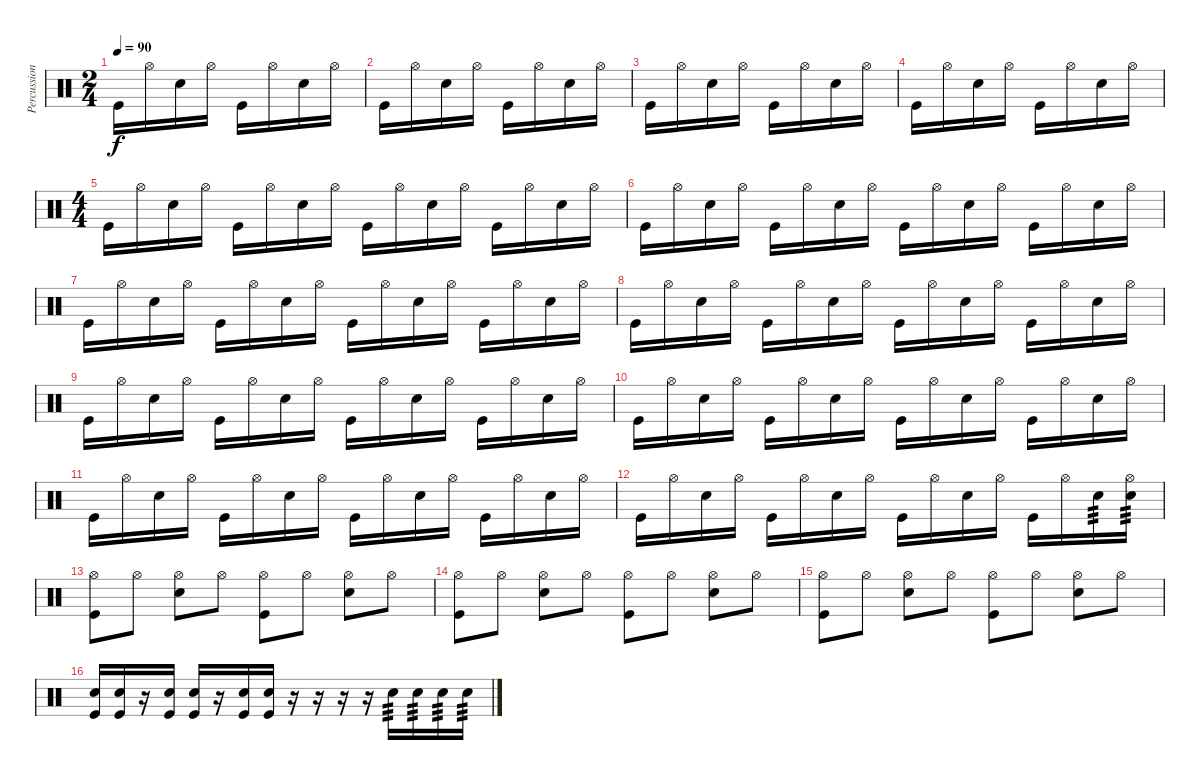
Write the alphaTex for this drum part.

\track ("Percussion" "Percussion") {instrument percussion}
\staff {score}
\articulation defaults
\ts (2 4)
\tempo 90
\clef neutral
\ks c "Kick (hit)".16{dy f} "Hi-Hat (open)".16 "Snare (hit) 2".16 "Hi-Hat (open)".16 "Kick (hit)".16 "Hi-Hat (open)".16 "Snare (hit) 2".16 "Hi-Hat (open)".16
|
"Kick (hit)".16 "Hi-Hat (open)".16 "Snare (hit) 2".16 "Hi-Hat (open)".16 "Kick (hit)".16 "Hi-Hat (open)".16 "Snare (hit) 2".16 "Hi-Hat (open)".16 |
"Kick (hit)".16 "Hi-Hat (open)".16 "Snare (hit) 2".16 "Hi-Hat (open)".16 "Kick (hit)".16 "Hi-Hat (open)".16 "Snare (hit) 2".16 "Hi-Hat (open)".16 |
"Kick (hit)".16 "Hi-Hat (open)".16 "Snare (hit) 2".16 "Hi-Hat (open)".16 "Kick (hit)".16 "Hi-Hat (open)".16 "Snare (hit) 2".16 "Hi-Hat (open)".16 |
\ts (4 4)
"Kick (hit)".16 "Hi-Hat (open)".16 "Snare (hit) 2".16 "Hi-Hat (open)".16 "Kick (hit)".16 "Hi-Hat (open)".16 "Snare (hit) 2".16 "Hi-Hat (open)".16 "Kick (hit)".16 "Hi-Hat (open)".16 "Snare (hit) 2".16 "Hi-Hat (open)".16 "Kick (hit)".16 "Hi-Hat (open)".16 "Snare (hit) 2".16 "Hi-Hat (open)".16 |
"Kick (hit)".16 "Hi-Hat (open)".16 "Snare (hit) 2".16 "Hi-Hat (open)".16 "Kick (hit)".16 "Hi-Hat (open)".16 "Snare (hit) 2".16 "Hi-Hat (open)".16 "Kick (hit)".16 "Hi-Hat (open)".16 "Snare (hit) 2".16 "Hi-Hat (open)".16 "Kick (hit)".16 "Hi-Hat (open)".16 "Snare (hit) 2".16 "Hi-Hat (open)".16 |
"Kick (hit)".16 "Hi-Hat (open)".16 "Snare (hit) 2".16 "Hi-Hat (open)".16 "Kick (hit)".16 "Hi-Hat (open)".16 "Snare (hit) 2".16 "Hi-Hat (open)".16 "Kick (hit)".16 "Hi-Hat (open)".16 "Snare (hit) 2".16 "Hi-Hat (open)".16 "Kick (hit)".16 "Hi-Hat (open)".16 "Snare (hit) 2".16 "Hi-Hat (open)".16 |
"Kick (hit)".16 "Hi-Hat (open)".16 "Snare (hit) 2".16 "Hi-Hat (open)".16 "Kick (hit)".16 "Hi-Hat (open)".16 "Snare (hit) 2".16 "Hi-Hat (open)".16 "Kick (hit)".16 "Hi-Hat (open)".16 "Snare (hit) 2".16 "Hi-Hat (open)".16 "Kick (hit)".16 "Hi-Hat (open)".16 "Snare (hit) 2".16 "Hi-Hat (open)".16 |
"Kick (hit)".16 "Hi-Hat (open)".16 "Snare (hit) 2".16 "Hi-Hat (open)".16 "Kick (hit)".16 "Hi-Hat (open)".16 "Snare (hit) 2".16 "Hi-Hat (open)".16 "Kick (hit)".16 "Hi-Hat (open)".16 "Snare (hit) 2".16 "Hi-Hat (open)".16 "Kick (hit)".16 "Hi-Hat (open)".16 "Snare (hit) 2".16 "Hi-Hat (open)".16 |
"Kick (hit)".16 "Hi-Hat (open)".16 "Snare (hit) 2".16 "Hi-Hat (open)".16 "Kick (hit)".16 "Hi-Hat (open)".16 "Snare (hit) 2".16 "Hi-Hat (open)".16 "Kick (hit)".16 "Hi-Hat (open)".16 "Snare (hit) 2".16 "Hi-Hat (open)".16 "Kick (hit)".16 "Hi-Hat (open)".16 "Snare (hit) 2".16 "Hi-Hat (open)".16 |
"Kick (hit)".16 "Hi-Hat (open)".16 "Snare (hit) 2".16 "Hi-Hat (open)".16 "Kick (hit)".16 "Hi-Hat (open)".16 "Snare (hit) 2".16 "Hi-Hat (open)".16 "Kick (hit)".16 "Hi-Hat (open)".16 "Snare (hit) 2".16 "Hi-Hat (open)".16 "Kick (hit)".16 "Hi-Hat (open)".16 "Snare (hit) 2".16 "Hi-Hat (open)".16 |
"Kick (hit)".16 "Hi-Hat (open)".16 "Snare (hit) 2".16 "Hi-Hat (open)".16 "Kick (hit)".16 "Hi-Hat (open)".16 "Snare (hit) 2".16 "Hi-Hat (open)".16 "Kick (hit)".16 "Hi-Hat (open)".16 "Snare (hit) 2".16 "Hi-Hat (open)".16 "Kick (hit)".16 "Hi-Hat (open)".16 "Snare (hit) 2".16{tp 3} ("Hi-Hat (open)" "Snare (hit) 2").16{tp 3} |
("Hi-Hat (open)" "Kick (hit)").8 "Hi-Hat (open)".8 ("Hi-Hat (open)" "Snare (hit) 2").8 "Hi-Hat (open)".8 ("Kick (hit)" "Hi-Hat (open)").8 "Hi-Hat (open)".8 ("Hi-Hat (open)" "Snare (hit) 2").8 "Hi-Hat (open)".8 |
("Hi-Hat (open)" "Kick (hit)").8 "Hi-Hat (open)".8 ("Hi-Hat (open)" "Snare (hit) 2").8 "Hi-Hat (open)".8 ("Kick (hit)" "Hi-Hat (open)").8 "Hi-Hat (open)".8 ("Hi-Hat (open)" "Snare (hit) 2").8 "Hi-Hat (open)".8 |
("Hi-Hat (open)" "Kick (hit)").8 "Hi-Hat (open)".8 ("Hi-Hat (open)" "Snare (hit) 2").8 "Hi-Hat (open)".8 ("Kick (hit)" "Hi-Hat (open)").8 "Hi-Hat (open)".8 ("Hi-Hat (open)" "Snare (hit) 2").8 "Hi-Hat (open)".8 |
("Snare (hit) 2" "Kick (hit)").16 ("Snare (hit) 2" "Kick (hit)").16 r.16 ("Snare (hit) 2" "Kick (hit)").16 ("Snare (hit) 2" "Kick (hit)").16 r.16 ("Snare (hit) 2" "Kick (hit)").16 ("Snare (hit) 2" "Kick (hit)").16 r.16 r.16 r.16 r.16 "Snare (hit) 2".16{tp 3} "Snare (hit) 2".16{tp 3} "Snare (hit) 2".16{tp 3} "Snare (hit) 2".16{tp 3}
